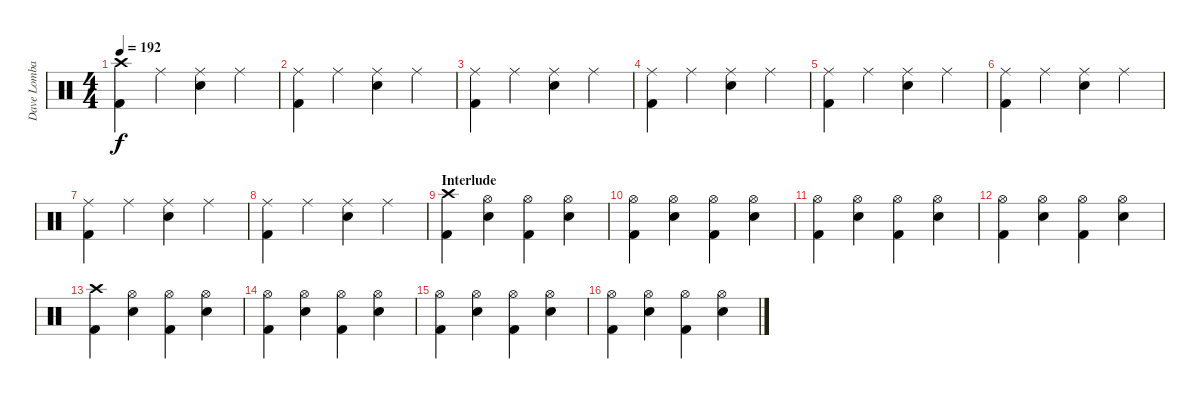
\track ("Dave Lombardo" "Dave Lomba") {instrument percussion}
\staff {score}
\articulation defaults
\ts (4 4)
\tempo 192
\clef neutral
\ks c
("Crash high (hit)" "Kick (hit) 2").4{dy f} "Ride (middle)".4 ("Ride (middle)" "Electric Snare (hit)").4 "Ride (middle)".4 |
("Ride (middle)" "Kick (hit) 2").4 "Ride (middle)".4 ("Ride (middle)" "Electric Snare (hit)").4 "Ride (middle)".4 |
("Ride (middle)" "Kick (hit) 2").4 "Ride (middle)".4 ("Ride (middle)" "Electric Snare (hit)").4 "Ride (middle)".4 |
("Ride (middle)" "Kick (hit) 2").4 "Ride (middle)".4 ("Ride (middle)" "Electric Snare (hit)").4 "Ride (middle)".4 |
("Ride (middle)" "Kick (hit) 2").4 "Ride (middle)".4 ("Ride (middle)" "Electric Snare (hit)").4 "Ride (middle)".4 |
("Ride (middle)" "Kick (hit) 2").4 "Ride (middle)".4 ("Ride (middle)" "Electric Snare (hit)").4 "Ride (middle)".4 |
("Ride (middle)" "Kick (hit) 2").4 "Ride (middle)".4 ("Ride (middle)" "Electric Snare (hit)").4 "Ride (middle)".4 |
("Ride (middle)" "Kick (hit) 2").4 "Ride (middle)".4 ("Ride (middle)" "Electric Snare (hit)").4 "Ride (middle)".4 |
\section ("" "Interlude")
("Crash high (hit)" "Kick (hit) 2").4 ("Hi-Hat (open)" "Electric Snare (hit)").4 ("Hi-Hat (open)" "Kick (hit) 2").4 ("Hi-Hat (open)" "Electric Snare (hit)").4 |
("Hi-Hat (open)" "Kick (hit) 2").4 ("Hi-Hat (open)" "Electric Snare (hit)").4 ("Hi-Hat (open)" "Kick (hit) 2").4 ("Hi-Hat (open)" "Electric Snare (hit)").4 |
("Hi-Hat (open)" "Kick (hit) 2").4 ("Hi-Hat (open)" "Electric Snare (hit)").4 ("Hi-Hat (open)" "Kick (hit) 2").4 ("Hi-Hat (open)" "Electric Snare (hit)").4 |
("Hi-Hat (open)" "Kick (hit) 2").4 ("Hi-Hat (open)" "Electric Snare (hit)").4 ("Hi-Hat (open)" "Kick (hit) 2").4 ("Hi-Hat (open)" "Electric Snare (hit)").4 |
("Crash high (hit)" "Kick (hit) 2").4 ("Hi-Hat (open)" "Electric Snare (hit)").4 ("Hi-Hat (open)" "Kick (hit) 2").4 ("Hi-Hat (open)" "Electric Snare (hit)").4 |
("Hi-Hat (open)" "Kick (hit) 2").4 ("Hi-Hat (open)" "Electric Snare (hit)").4 ("Hi-Hat (open)" "Kick (hit) 2").4 ("Hi-Hat (open)" "Electric Snare (hit)").4 |
("Hi-Hat (open)" "Kick (hit) 2").4 ("Hi-Hat (open)" "Electric Snare (hit)").4 ("Hi-Hat (open)" "Kick (hit) 2").4 ("Hi-Hat (open)" "Electric Snare (hit)").4 |
("Hi-Hat (open)" "Kick (hit) 2").4 ("Hi-Hat (open)" "Electric Snare (hit)").4 ("Hi-Hat (open)" "Kick (hit) 2").4 ("Hi-Hat (open)" "Electric Snare (hit)").4
